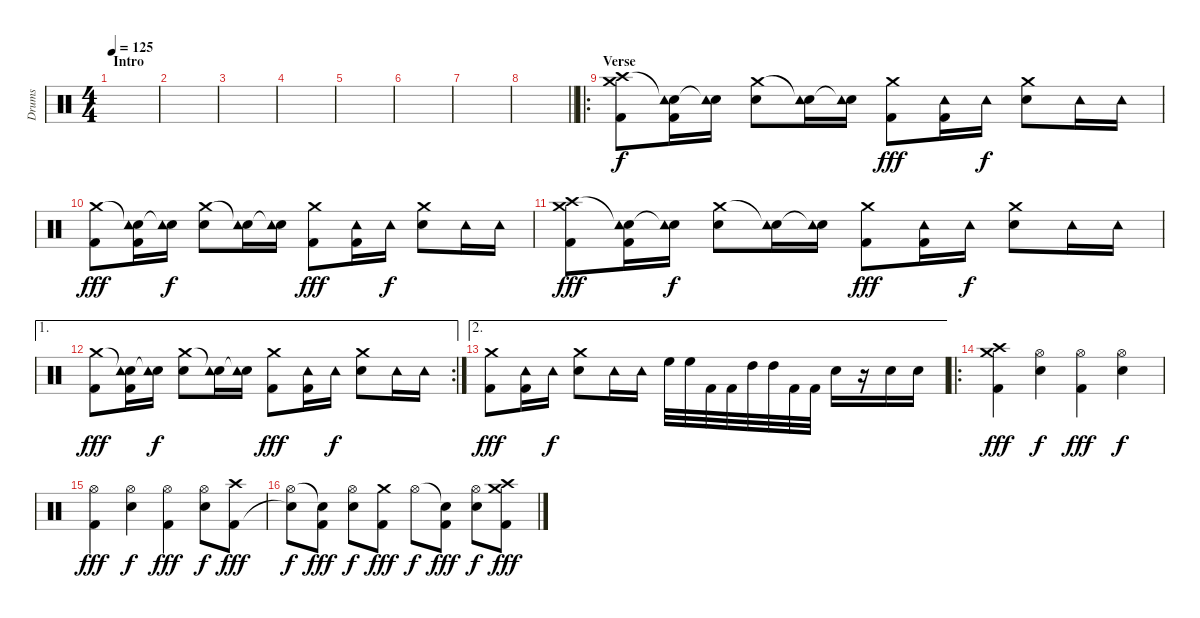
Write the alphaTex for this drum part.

\track ("Drums" "Drums") {instrument percussion}
\staff {score}
\articulation defaults
\ts (4 4)
\section ("" "Intro")
\tempo 125
\clef neutral
\ks c
|
|
|
|
|
|
|
\barLineRight lightlight
|
\ro
\section ("" "Verse")
("Crash high (hit)" "Kick (hit) 2" "Crash medium (hit)").8 ("Snare (hit)"{t} "Tambourine (hit)" "Kick (hit) 2").16 ("Snare (hit)"{t} "Tambourine (hit)").16{dy f} ("Crash medium (hit)" "Electric Snare (hit)").8 ("Snare (hit)"{t} "Tambourine (hit)").16 ("Snare (hit)"{t} "Tambourine (hit)").16 ("Crash medium (hit)" "Kick (hit) 2").8{dy fff} ("Tambourine (hit)" "Kick (hit) 2").16 "Tambourine (hit)".16{dy f} ("Crash medium (hit)" "Electric Snare (hit)").8 "Tambourine (hit)".16 "Tambourine (hit)".16 |
("Crash medium (hit)" "Kick (hit) 2").8{dy fff} ("Snare (hit)"{t} "Tambourine (hit)" "Kick (hit) 2").16 ("Snare (hit)"{t} "Tambourine (hit)").16{dy f} ("Crash medium (hit)" "Electric Snare (hit)").8 ("Snare (hit)"{t} "Tambourine (hit)").16 ("Snare (hit)"{t} "Tambourine (hit)").16 ("Crash medium (hit)" "Kick (hit) 2").8{dy fff} ("Tambourine (hit)" "Kick (hit) 2").16 "Tambourine (hit)".16{dy f} ("Crash medium (hit)" "Electric Snare (hit)").8 "Tambourine (hit)".16 "Tambourine (hit)".16 |
("Crash high (hit)" "Kick (hit) 2" "Crash medium (hit)").8{dy fff} ("Snare (hit)"{t} "Tambourine (hit)" "Kick (hit) 2").16 ("Snare (hit)"{t} "Tambourine (hit)").16{dy f} ("Crash medium (hit)" "Electric Snare (hit)").8 ("Snare (hit)"{t} "Tambourine (hit)").16 ("Snare (hit)"{t} "Tambourine (hit)").16 ("Crash medium (hit)" "Kick (hit) 2").8{dy fff} ("Tambourine (hit)" "Kick (hit) 2").16 "Tambourine (hit)".16{dy f} ("Crash medium (hit)" "Electric Snare (hit)").8 "Tambourine (hit)".16 "Tambourine (hit)".16 |
\ae 1
\rc 2
("Crash medium (hit)" "Kick (hit) 2").8{dy fff} ("Snare (hit)"{t} "Tambourine (hit)" "Kick (hit) 2").16 ("Snare (hit)"{t} "Tambourine (hit)").16{dy f} ("Crash medium (hit)" "Electric Snare (hit)").8 ("Snare (hit)"{t} "Tambourine (hit)").16 ("Snare (hit)"{t} "Tambourine (hit)").16 ("Crash medium (hit)" "Kick (hit) 2").8{dy fff} ("Tambourine (hit)" "Kick (hit) 2").16 "Tambourine (hit)".16{dy f} ("Crash medium (hit)" "Electric Snare (hit)").8 "Tambourine (hit)".16 "Tambourine (hit)".16 |
\ae 2
("Crash medium (hit)" "Kick (hit) 2").8{dy fff} ("Tambourine (hit)" "Kick (hit) 2").16 "Tambourine (hit)".16{dy f} ("Crash medium (hit)" "Electric Snare (hit)").8 "Tambourine (hit)".16 "Tambourine (hit)".16 "High Floor Tom (hit)".32 "High Floor Tom (hit)".32 "Kick (hit) 2".32 "Kick (hit) 2".32 "High Tom (hit)".32 "High Tom (hit)".32 "Kick (hit) 2".32 "Kick (hit) 2".32 "Electric Snare (hit)".16 r.16 "Electric Snare (hit)".16 "Electric Snare (hit)".16 |
\ro
("Crash high (hit)" "Kick (hit) 2" "Crash medium (hit)").4{dy fff} ("Hi-Hat (open)" "Electric Snare (hit)").4{dy f} ("Hi-Hat (open)" "Kick (hit) 2").4{dy fff} ("Hi-Hat (open)" "Electric Snare (hit)").4{dy f} |
("Hi-Hat (open)" "Kick (hit) 2").4{dy fff} ("Hi-Hat (open)" "Electric Snare (hit)").4{dy f} ("Hi-Hat (open)" "Kick (hit) 2").4{dy fff} ("Hi-Hat (open)" "Electric Snare (hit)").8{dy f} ("Crash high (hit)" "Kick (hit) 2").8{dy fff} |
("Hi-Hat (open)" "Snare (hit)"{t}).8{dy f} ("Snare (hit)"{t} "Kick (hit) 2").8{dy fff} ("Hi-Hat (open)" "Electric Snare (hit)").8{dy f} ("Crash medium (hit)" "Kick (hit) 2").8{dy fff} "Hi-Hat (open)".8{dy f} ("Snare (hit)"{t} "Kick (hit) 2").8{dy fff} ("Hi-Hat (open)" "Electric Snare (hit)").8{dy f} ("Crash high (hit)" "Kick (hit) 2" "Crash medium (hit)").8{dy fff}
